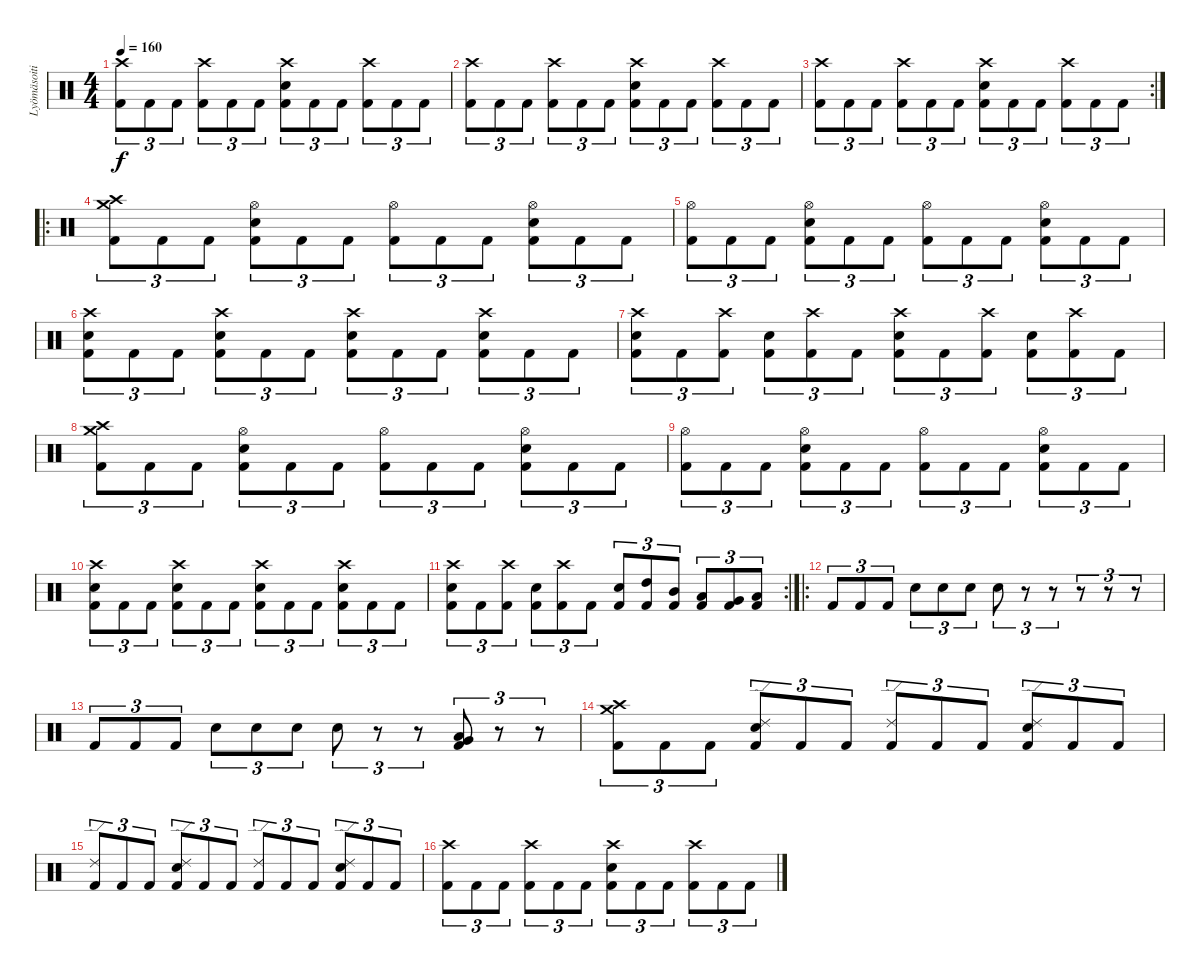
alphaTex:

\track ("Lyömäsoitin" "Lyömäsoiti") {instrument percussion}
\staff {score}
\articulation defaults
\ts (4 4)
\tempo 160
\clef neutral
\ks c
("Crash high (hit)" "Kick (hit) 2").8{tu (3 2) dy f} "Kick (hit) 2".8{tu (3 2)} "Kick (hit) 2".8{tu (3 2)} ("Crash high (hit)" "Kick (hit) 2").8{tu (3 2)} "Kick (hit) 2".8{tu (3 2)} "Kick (hit) 2".8{tu (3 2)} ("Crash high (hit)" "Snare (hit) 2" "Kick (hit) 2").8{tu (3 2)} "Kick (hit) 2".8{tu (3 2)} "Kick (hit) 2".8{tu (3 2)} ("Crash high (hit)" "Kick (hit) 2").8{tu (3 2)} "Kick (hit) 2".8{tu (3 2)} "Kick (hit) 2".8{tu (3 2)} |
("Crash high (hit)" "Kick (hit) 2").8{tu (3 2)} "Kick (hit) 2".8{tu (3 2)} "Kick (hit) 2".8{tu (3 2)} ("Crash high (hit)" "Kick (hit) 2").8{tu (3 2)} "Kick (hit) 2".8{tu (3 2)} "Kick (hit) 2".8{tu (3 2)} ("Crash high (hit)" "Snare (hit) 2" "Kick (hit) 2").8{tu (3 2)} "Kick (hit) 2".8{tu (3 2)} "Kick (hit) 2".8{tu (3 2)} ("Crash high (hit)" "Kick (hit) 2").8{tu (3 2)} "Kick (hit) 2".8{tu (3 2)} "Kick (hit) 2".8{tu (3 2)} |
\rc 2
("Crash high (hit)" "Kick (hit) 2").8{tu (3 2)} "Kick (hit) 2".8{tu (3 2)} "Kick (hit) 2".8{tu (3 2)} ("Crash high (hit)" "Kick (hit) 2").8{tu (3 2)} "Kick (hit) 2".8{tu (3 2)} "Kick (hit) 2".8{tu (3 2)} ("Crash high (hit)" "Snare (hit) 2" "Kick (hit) 2").8{tu (3 2)} "Kick (hit) 2".8{tu (3 2)} "Kick (hit) 2".8{tu (3 2)} ("Crash high (hit)" "Kick (hit) 2").8{tu (3 2)} "Kick (hit) 2".8{tu (3 2)} "Kick (hit) 2".8{tu (3 2)} |
\ro
("Crash medium (hit)" "Crash high (hit)" "Kick (hit) 2").8{tu (3 2)} "Kick (hit) 2".8{tu (3 2)} "Kick (hit) 2".8{tu (3 2)} ("Hi-Hat (open)" "Snare (hit) 2" "Kick (hit) 2").8{tu (3 2)} "Kick (hit) 2".8{tu (3 2)} "Kick (hit) 2".8{tu (3 2)} ("Hi-Hat (open)" "Kick (hit) 2").8{tu (3 2)} "Kick (hit) 2".8{tu (3 2)} "Kick (hit) 2".8{tu (3 2)} ("Hi-Hat (open)" "Snare (hit) 2" "Kick (hit) 2").8{tu (3 2)} "Kick (hit) 2".8{tu (3 2)} "Kick (hit) 2".8{tu (3 2)} |
("Hi-Hat (open)" "Kick (hit) 2").8{tu (3 2)} "Kick (hit) 2".8{tu (3 2)} "Kick (hit) 2".8{tu (3 2)} ("Hi-Hat (open)" "Snare (hit) 2" "Kick (hit) 2").8{tu (3 2)} "Kick (hit) 2".8{tu (3 2)} "Kick (hit) 2".8{tu (3 2)} ("Hi-Hat (open)" "Kick (hit) 2").8{tu (3 2)} "Kick (hit) 2".8{tu (3 2)} "Kick (hit) 2".8{tu (3 2)} ("Hi-Hat (open)" "Snare (hit) 2" "Kick (hit) 2").8{tu (3 2)} "Kick (hit) 2".8{tu (3 2)} "Kick (hit) 2".8{tu (3 2)} |
("Crash high (hit)" "Snare (hit) 2" "Kick (hit) 2").8{tu (3 2)} "Kick (hit) 2".8{tu (3 2)} "Kick (hit) 2".8{tu (3 2)} ("Crash high (hit)" "Snare (hit) 2" "Kick (hit) 2").8{tu (3 2)} "Kick (hit) 2".8{tu (3 2)} "Kick (hit) 2".8{tu (3 2)} ("Crash high (hit)" "Snare (hit) 2" "Kick (hit) 2").8{tu (3 2)} "Kick (hit) 2".8{tu (3 2)} "Kick (hit) 2".8{tu (3 2)} ("Crash high (hit)" "Snare (hit) 2" "Kick (hit) 2").8{tu (3 2)} "Kick (hit) 2".8{tu (3 2)} "Kick (hit) 2".8{tu (3 2)} |
("Crash high (hit)" "Snare (hit) 2" "Kick (hit) 2").8{tu (3 2)} "Kick (hit) 2".8{tu (3 2)} ("Crash high (hit)" "Kick (hit) 2").8{tu (3 2)} ("Snare (hit) 2" "Kick (hit) 2").8{tu (3 2)} ("Crash high (hit)" "Kick (hit) 2").8{tu (3 2)} "Kick (hit) 2".8{tu (3 2)} ("Crash high (hit)" "Snare (hit) 2" "Kick (hit) 2").8{tu (3 2)} "Kick (hit) 2".8{tu (3 2)} ("Crash high (hit)" "Kick (hit) 2").8{tu (3 2)} ("Snare (hit) 2" "Kick (hit) 2").8{tu (3 2)} ("Crash high (hit)" "Kick (hit) 2").8{tu (3 2)} "Kick (hit) 2".8{tu (3 2)} |
("Crash medium (hit)" "Crash high (hit)" "Kick (hit) 2").8{tu (3 2)} "Kick (hit) 2".8{tu (3 2)} "Kick (hit) 2".8{tu (3 2)} ("Hi-Hat (open)" "Snare (hit) 2" "Kick (hit) 2").8{tu (3 2)} "Kick (hit) 2".8{tu (3 2)} "Kick (hit) 2".8{tu (3 2)} ("Hi-Hat (open)" "Kick (hit) 2").8{tu (3 2)} "Kick (hit) 2".8{tu (3 2)} "Kick (hit) 2".8{tu (3 2)} ("Hi-Hat (open)" "Snare (hit) 2" "Kick (hit) 2").8{tu (3 2)} "Kick (hit) 2".8{tu (3 2)} "Kick (hit) 2".8{tu (3 2)} |
("Hi-Hat (open)" "Kick (hit) 2").8{tu (3 2)} "Kick (hit) 2".8{tu (3 2)} "Kick (hit) 2".8{tu (3 2)} ("Hi-Hat (open)" "Snare (hit) 2" "Kick (hit) 2").8{tu (3 2)} "Kick (hit) 2".8{tu (3 2)} "Kick (hit) 2".8{tu (3 2)} ("Hi-Hat (open)" "Kick (hit) 2").8{tu (3 2)} "Kick (hit) 2".8{tu (3 2)} "Kick (hit) 2".8{tu (3 2)} ("Hi-Hat (open)" "Snare (hit) 2" "Kick (hit) 2").8{tu (3 2)} "Kick (hit) 2".8{tu (3 2)} "Kick (hit) 2".8{tu (3 2)} |
("Crash high (hit)" "Snare (hit) 2" "Kick (hit) 2").8{tu (3 2)} "Kick (hit) 2".8{tu (3 2)} "Kick (hit) 2".8{tu (3 2)} ("Crash high (hit)" "Snare (hit) 2" "Kick (hit) 2").8{tu (3 2)} "Kick (hit) 2".8{tu (3 2)} "Kick (hit) 2".8{tu (3 2)} ("Crash high (hit)" "Snare (hit) 2" "Kick (hit) 2").8{tu (3 2)} "Kick (hit) 2".8{tu (3 2)} "Kick (hit) 2".8{tu (3 2)} ("Crash high (hit)" "Snare (hit) 2" "Kick (hit) 2").8{tu (3 2)} "Kick (hit) 2".8{tu (3 2)} "Kick (hit) 2".8{tu (3 2)} |
\rc 2
("Crash high (hit)" "Snare (hit) 2" "Kick (hit) 2").8{tu (3 2)} "Kick (hit) 2".8{tu (3 2)} ("Crash high (hit)" "Kick (hit) 2").8{tu (3 2)} ("Snare (hit) 2" "Kick (hit) 2").8{tu (3 2)} ("Crash high (hit)" "Kick (hit) 2").8{tu (3 2)} "Kick (hit) 2".8{tu (3 2)} ("Snare (hit) 2" "Kick (hit) 2").8{tu (3 2)} ("High Tom (hit)" "Kick (hit) 2").8{tu (3 2)} ("Mid Tom (hit)" "Kick (hit) 2").8{tu (3 2)} ("Low Tom (hit)" "Kick (hit) 2").8{tu (3 2)} ("Very Low Tom (hit)" "Kick (hit) 2").8{tu (3 2)} ("Low Floor Tom (hit)" "Kick (hit) 2").8{tu (3 2)} |
\ro "Kick (hit) 2".8{tu (3 2)} "Kick (hit) 2".8{tu (3 2)} "Kick (hit) 2".8{tu (3 2)} "Snare (hit) 2".8{tu (3 2)} "Snare (hit) 2".8{tu (3 2)} "Snare (hit) 2".8{tu (3 2)} "Snare (hit) 2".8{tu (3 2)}
r.8{tu (3 2)} r.8{tu (3 2)} r.8{tu (3 2)} r.8{tu (3 2)} r.8{tu (3 2)} |
"Kick (hit) 2".8{tu (3 2)} "Kick (hit) 2".8{tu (3 2)} "Kick (hit) 2".8{tu (3 2)} "Snare (hit) 2".8{tu (3 2)} "Snare (hit) 2".8{tu (3 2)} "Snare (hit) 2".8{tu (3 2)} "Snare (hit) 2".8{tu (3 2)} r.8{tu (3 2)} r.8{tu (3 2)} ("Very Low Tom (hit)" "Low Floor Tom (hit)" "Kick (hit) 2").8{tu (3 2)} r.8{tu (3 2)} r.8{tu (3 2)} |
("Crash medium (hit)" "Crash high (hit)" "Kick (hit) 2").8{tu (3 2)} "Kick (hit) 2".8{tu (3 2)} "Kick (hit) 2".8{tu (3 2)} ("Ride (edge) 2" "Snare (hit) 2" "Kick (hit) 2").8{tu (3 2)} "Kick (hit) 2".8{tu (3 2)} "Kick (hit) 2".8{tu (3 2)} ("Ride (edge) 2" "Kick (hit) 2").8{tu (3 2)} "Kick (hit) 2".8{tu (3 2)} "Kick (hit) 2".8{tu (3 2)} ("Ride (edge) 2" "Snare (hit) 2" "Kick (hit) 2").8{tu (3 2)} "Kick (hit) 2".8{tu (3 2)} "Kick (hit) 2".8{tu (3 2)} |
("Ride (edge) 2" "Kick (hit) 2").8{tu (3 2)} "Kick (hit) 2".8{tu (3 2)} "Kick (hit) 2".8{tu (3 2)} ("Ride (edge) 2" "Snare (hit) 2" "Kick (hit) 2").8{tu (3 2)} "Kick (hit) 2".8{tu (3 2)} "Kick (hit) 2".8{tu (3 2)} ("Ride (edge) 2" "Kick (hit) 2").8{tu (3 2)} "Kick (hit) 2".8{tu (3 2)} "Kick (hit) 2".8{tu (3 2)} ("Ride (edge) 2" "Snare (hit) 2" "Kick (hit) 2").8{tu (3 2)} "Kick (hit) 2".8{tu (3 2)} "Kick (hit) 2".8{tu (3 2)} |
("Crash high (hit)" "Kick (hit) 2").8{tu (3 2)} "Kick (hit) 2".8{tu (3 2)} "Kick (hit) 2".8{tu (3 2)} ("Crash high (hit)" "Kick (hit) 2").8{tu (3 2)} "Kick (hit) 2".8{tu (3 2)} "Kick (hit) 2".8{tu (3 2)} ("Crash high (hit)" "Snare (hit) 2" "Kick (hit) 2").8{tu (3 2)} "Kick (hit) 2".8{tu (3 2)} "Kick (hit) 2".8{tu (3 2)} ("Crash high (hit)" "Kick (hit) 2").8{tu (3 2)} "Kick (hit) 2".8{tu (3 2)} "Kick (hit) 2".8{tu (3 2)}
